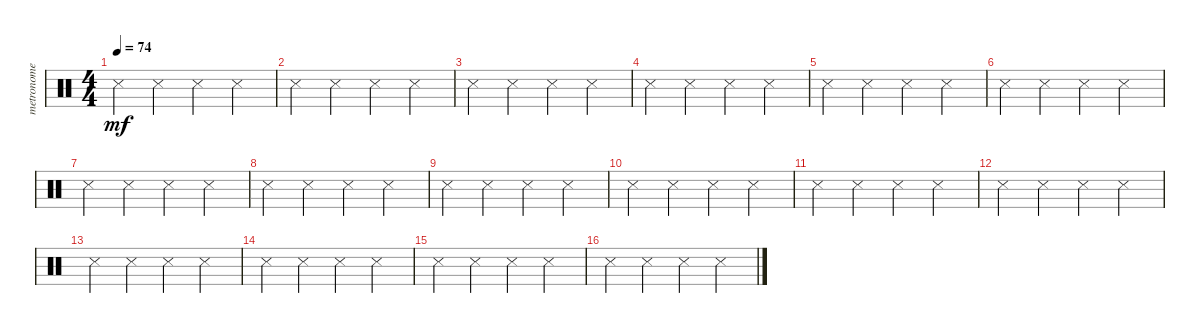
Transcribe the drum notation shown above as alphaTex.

\track ("metronome" "metronome") {instrument percussion}
\staff {score}
\articulation defaults
\ts (4 4)
\tempo 74
\clef neutral
\ks c "Snare (side stick) 3".4{dy mf} "Snare (side stick) 3".4 "Snare (side stick) 3".4 "Snare (side stick) 3".4
|
"Snare (side stick) 3".4 "Snare (side stick) 3".4 "Snare (side stick) 3".4 "Snare (side stick) 3".4 |
"Snare (side stick) 3".4 "Snare (side stick) 3".4 "Snare (side stick) 3".4 "Snare (side stick) 3".4 |
"Snare (side stick) 3".4 "Snare (side stick) 3".4 "Snare (side stick) 3".4 "Snare (side stick) 3".4 |
"Snare (side stick) 3".4 "Snare (side stick) 3".4 "Snare (side stick) 3".4 "Snare (side stick) 3".4 |
"Snare (side stick) 3".4 "Snare (side stick) 3".4 "Snare (side stick) 3".4 "Snare (side stick) 3".4 |
"Snare (side stick) 3".4 "Snare (side stick) 3".4 "Snare (side stick) 3".4 "Snare (side stick) 3".4 |
"Snare (side stick) 3".4 "Snare (side stick) 3".4 "Snare (side stick) 3".4 "Snare (side stick) 3".4 |
"Snare (side stick) 3".4 "Snare (side stick) 3".4 "Snare (side stick) 3".4 "Snare (side stick) 3".4 |
"Snare (side stick) 3".4 "Snare (side stick) 3".4 "Snare (side stick) 3".4 "Snare (side stick) 3".4 |
"Snare (side stick) 3".4 "Snare (side stick) 3".4 "Snare (side stick) 3".4 "Snare (side stick) 3".4 |
"Snare (side stick) 3".4 "Snare (side stick) 3".4 "Snare (side stick) 3".4 "Snare (side stick) 3".4 |
"Snare (side stick) 3".4 "Snare (side stick) 3".4 "Snare (side stick) 3".4 "Snare (side stick) 3".4 |
"Snare (side stick) 3".4 "Snare (side stick) 3".4 "Snare (side stick) 3".4 "Snare (side stick) 3".4 |
"Snare (side stick) 3".4 "Snare (side stick) 3".4 "Snare (side stick) 3".4 "Snare (side stick) 3".4 |
"Snare (side stick) 3".4 "Snare (side stick) 3".4 "Snare (side stick) 3".4 "Snare (side stick) 3".4
